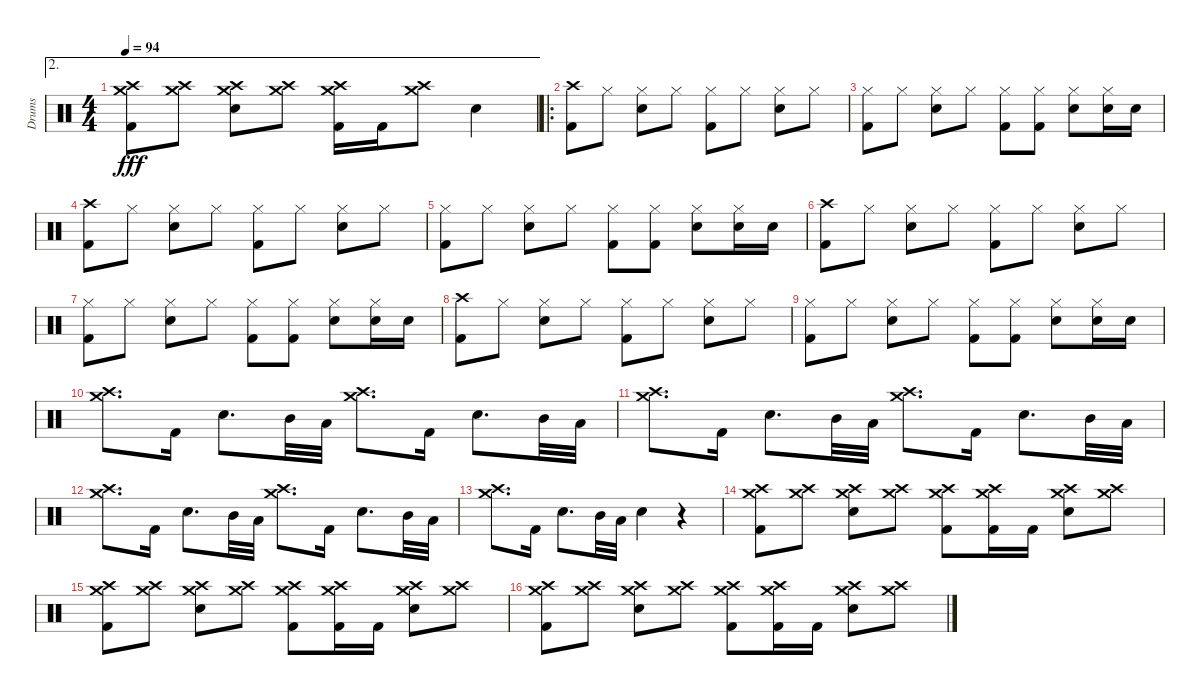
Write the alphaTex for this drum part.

\track ("Drums" "Drums") {instrument percussion}
\staff {score}
\articulation defaults
\ae 2
\ts (4 4)
\tempo 94
\clef neutral
\ks c
("Crash high (hit)" "Crash medium (hit)" "Kick (hit) 2").8{dy fff} ("Crash high (hit)" "Crash medium (hit)").8 ("Crash high (hit)" "Crash medium (hit)" "Snare (hit) 2").8 ("Crash high (hit)" "Crash medium (hit)").8 ("Crash high (hit)" "Crash medium (hit)" "Kick (hit) 2").16 "Kick (hit) 2".16 ("Crash high (hit)" "Crash medium (hit)").8 "Snare (hit) 2".4 |
\ro
("Crash high (hit)" "Kick (hit) 2").8 "Hi-Hat (closed)".8 ("Hi-Hat (closed)" "Snare (hit) 2").8 "Hi-Hat (closed)".8 ("Hi-Hat (closed)" "Kick (hit) 2").8 "Hi-Hat (closed)".8 ("Hi-Hat (closed)" "Snare (hit) 2").8 "Hi-Hat (closed)".8 |
("Hi-Hat (closed)" "Kick (hit) 2").8 "Hi-Hat (closed)".8 ("Hi-Hat (closed)" "Snare (hit) 2").8 "Hi-Hat (closed)".8 ("Hi-Hat (closed)" "Kick (hit) 2").8 ("Hi-Hat (closed)" "Kick (hit) 2").8 ("Hi-Hat (closed)" "Snare (hit) 2").8 ("Hi-Hat (closed)" "Snare (hit) 2").16 "Snare (hit) 2".16 |
("Crash high (hit)" "Kick (hit) 2").8 "Hi-Hat (closed)".8 ("Hi-Hat (closed)" "Snare (hit) 2").8 "Hi-Hat (closed)".8 ("Hi-Hat (closed)" "Kick (hit) 2").8 "Hi-Hat (closed)".8 ("Hi-Hat (closed)" "Snare (hit) 2").8 "Hi-Hat (closed)".8 |
("Hi-Hat (closed)" "Kick (hit) 2").8 "Hi-Hat (closed)".8 ("Hi-Hat (closed)" "Snare (hit) 2").8 "Hi-Hat (closed)".8 ("Hi-Hat (closed)" "Kick (hit) 2").8 ("Hi-Hat (closed)" "Kick (hit) 2").8 ("Hi-Hat (closed)" "Snare (hit) 2").8 ("Hi-Hat (closed)" "Snare (hit) 2").16 "Snare (hit) 2".16 |
("Crash high (hit)" "Kick (hit) 2").8 "Hi-Hat (closed)".8 ("Hi-Hat (closed)" "Snare (hit) 2").8 "Hi-Hat (closed)".8 ("Hi-Hat (closed)" "Kick (hit) 2").8 "Hi-Hat (closed)".8 ("Hi-Hat (closed)" "Snare (hit) 2").8 "Hi-Hat (closed)".8 |
("Hi-Hat (closed)" "Kick (hit) 2").8 "Hi-Hat (closed)".8 ("Hi-Hat (closed)" "Snare (hit) 2").8 "Hi-Hat (closed)".8 ("Hi-Hat (closed)" "Kick (hit) 2").8 ("Hi-Hat (closed)" "Kick (hit) 2").8 ("Hi-Hat (closed)" "Snare (hit) 2").8 ("Hi-Hat (closed)" "Snare (hit) 2").16 "Snare (hit) 2".16 |
("Crash high (hit)" "Kick (hit) 2").8 "Hi-Hat (closed)".8 ("Hi-Hat (closed)" "Snare (hit) 2").8 "Hi-Hat (closed)".8 ("Hi-Hat (closed)" "Kick (hit) 2").8 "Hi-Hat (closed)".8 ("Hi-Hat (closed)" "Snare (hit) 2").8 "Hi-Hat (closed)".8 |
("Hi-Hat (closed)" "Kick (hit) 2").8 "Hi-Hat (closed)".8 ("Hi-Hat (closed)" "Snare (hit) 2").8 "Hi-Hat (closed)".8 ("Hi-Hat (closed)" "Kick (hit) 2").8 ("Hi-Hat (closed)" "Kick (hit) 2").8 ("Hi-Hat (closed)" "Snare (hit) 2").8 ("Hi-Hat (closed)" "Snare (hit) 2").16 "Snare (hit) 2".16 |
("Crash high (hit)" "Crash medium (hit)").8{d} "Kick (hit) 2".16 "Snare (hit) 2".8{d} "Mid Tom (hit)".32 "Low Tom (hit)".32 ("Crash high (hit)" "Crash medium (hit)").8{d} "Kick (hit) 2".16 "Snare (hit) 2".8{d} "Mid Tom (hit)".32 "Low Tom (hit)".32 |
("Crash high (hit)" "Crash medium (hit)").8{d} "Kick (hit) 2".16 "Snare (hit) 2".8{d} "Mid Tom (hit)".32 "Low Tom (hit)".32 ("Crash high (hit)" "Crash medium (hit)").8{d} "Kick (hit) 2".16 "Snare (hit) 2".8{d} "Mid Tom (hit)".32 "Low Tom (hit)".32 |
("Crash high (hit)" "Crash medium (hit)").8{d} "Kick (hit) 2".16 "Snare (hit) 2".8{d} "Mid Tom (hit)".32 "Low Tom (hit)".32 ("Crash high (hit)" "Crash medium (hit)").8{d} "Kick (hit) 2".16 "Snare (hit) 2".8{d} "Mid Tom (hit)".32 "Low Tom (hit)".32 |
("Crash high (hit)" "Crash medium (hit)").8{d} "Kick (hit) 2".16 "Snare (hit) 2".8{d} "Mid Tom (hit)".32 "Low Tom (hit)".32 "Snare (hit) 2".4 r.4 |
("Crash high (hit)" "Crash medium (hit)" "Kick (hit) 2").8 ("Crash high (hit)" "Crash medium (hit)").8 ("Crash high (hit)" "Crash medium (hit)" "Snare (hit) 2").8 ("Crash high (hit)" "Crash medium (hit)").8 ("Crash high (hit)" "Crash medium (hit)" "Kick (hit) 2").8 ("Crash high (hit)" "Crash medium (hit)" "Kick (hit) 2").16 "Kick (hit) 2".16 ("Crash high (hit)" "Crash medium (hit)" "Snare (hit) 2").8 ("Crash high (hit)" "Crash medium (hit)").8 |
("Crash high (hit)" "Crash medium (hit)" "Kick (hit) 2").8 ("Crash high (hit)" "Crash medium (hit)").8 ("Crash high (hit)" "Crash medium (hit)" "Snare (hit) 2").8 ("Crash high (hit)" "Crash medium (hit)").8 ("Crash high (hit)" "Crash medium (hit)" "Kick (hit) 2").8 ("Crash high (hit)" "Crash medium (hit)" "Kick (hit) 2").16 "Kick (hit) 2".16 ("Crash high (hit)" "Crash medium (hit)" "Snare (hit) 2").8 ("Crash high (hit)" "Crash medium (hit)").8 |
("Crash high (hit)" "Crash medium (hit)" "Kick (hit) 2").8 ("Crash high (hit)" "Crash medium (hit)").8 ("Crash high (hit)" "Crash medium (hit)" "Snare (hit) 2").8 ("Crash high (hit)" "Crash medium (hit)").8 ("Crash high (hit)" "Crash medium (hit)" "Kick (hit) 2").8 ("Crash high (hit)" "Crash medium (hit)" "Kick (hit) 2").16 "Kick (hit) 2".16 ("Crash high (hit)" "Crash medium (hit)" "Snare (hit) 2").8 ("Crash high (hit)" "Crash medium (hit)").8
